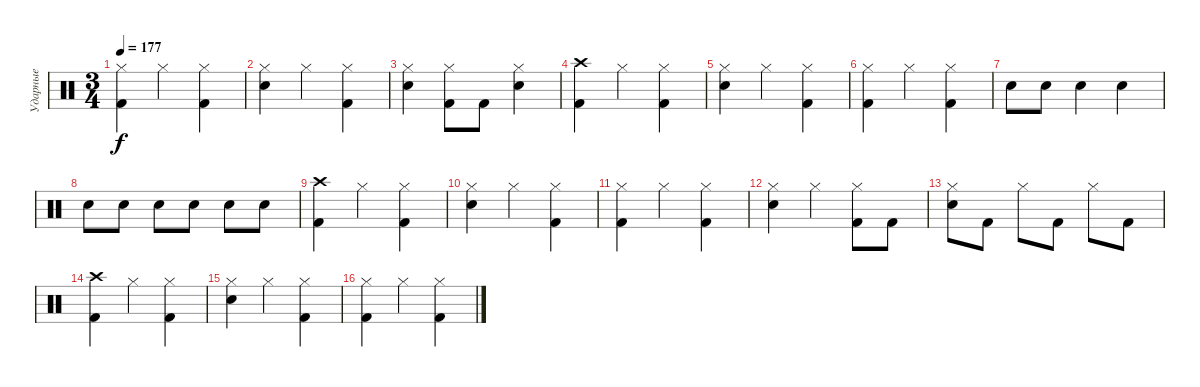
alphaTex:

\track ("Ударные" "Ударные") {instrument percussion}
\staff {score}
\articulation defaults
\ts (3 4)
\tempo 177
\clef neutral
\ks c
("Hi-Hat (closed)" "Kick (hit) 2").4{dy f} "Hi-Hat (closed)".4 ("Hi-Hat (closed)" "Kick (hit) 2").4 |
("Hi-Hat (closed)" "Snare (hit) 2").4 "Hi-Hat (closed)".4 ("Hi-Hat (closed)" "Kick (hit) 2").4 |
("Hi-Hat (closed)" "Snare (hit) 2").4 ("Hi-Hat (closed)" "Kick (hit) 2").8 "Kick (hit) 2".8 ("Hi-Hat (closed)" "Snare (hit) 2").4 |
("Crash high (hit)" "Kick (hit) 2").4 "Hi-Hat (closed)".4 ("Hi-Hat (closed)" "Kick (hit) 2").4 |
("Hi-Hat (closed)" "Snare (hit) 2").4 "Hi-Hat (closed)".4 ("Hi-Hat (closed)" "Kick (hit) 2").4 |
("Hi-Hat (closed)" "Kick (hit) 2").4 "Hi-Hat (closed)".4 ("Hi-Hat (closed)" "Kick (hit) 2").4 |
"Snare (hit) 2".8 "Snare (hit) 2".8 "Snare (hit) 2".4 "Snare (hit) 2".4 |
"Snare (hit) 2".8 "Snare (hit) 2".8 "Snare (hit) 2".8 "Snare (hit) 2".8 "Snare (hit) 2".8 "Snare (hit) 2".8 |
("Crash high (hit)" "Kick (hit) 2").4 "Hi-Hat (closed)".4 ("Hi-Hat (closed)" "Kick (hit) 2").4 |
("Hi-Hat (closed)" "Snare (hit) 2").4 "Hi-Hat (closed)".4 ("Hi-Hat (closed)" "Kick (hit) 2").4 |
("Hi-Hat (closed)" "Kick (hit) 2").4 "Hi-Hat (closed)".4 ("Hi-Hat (closed)" "Kick (hit) 2").4 |
("Hi-Hat (closed)" "Snare (hit) 2").4 "Hi-Hat (closed)".4 ("Hi-Hat (closed)" "Kick (hit) 2").8 "Kick (hit) 2".8 |
("Hi-Hat (closed)" "Snare (hit) 2").8 "Kick (hit) 2".8 "Hi-Hat (closed)".8 "Kick (hit) 2".8 "Hi-Hat (closed)".8 "Kick (hit) 2".8 |
("Crash high (hit)" "Kick (hit) 2").4 "Hi-Hat (closed)".4 ("Hi-Hat (closed)" "Kick (hit) 2").4 |
("Hi-Hat (closed)" "Snare (hit) 2").4 "Hi-Hat (closed)".4 ("Hi-Hat (closed)" "Kick (hit) 2").4 |
("Hi-Hat (closed)" "Kick (hit) 2").4 "Hi-Hat (closed)".4 ("Hi-Hat (closed)" "Kick (hit) 2").4
